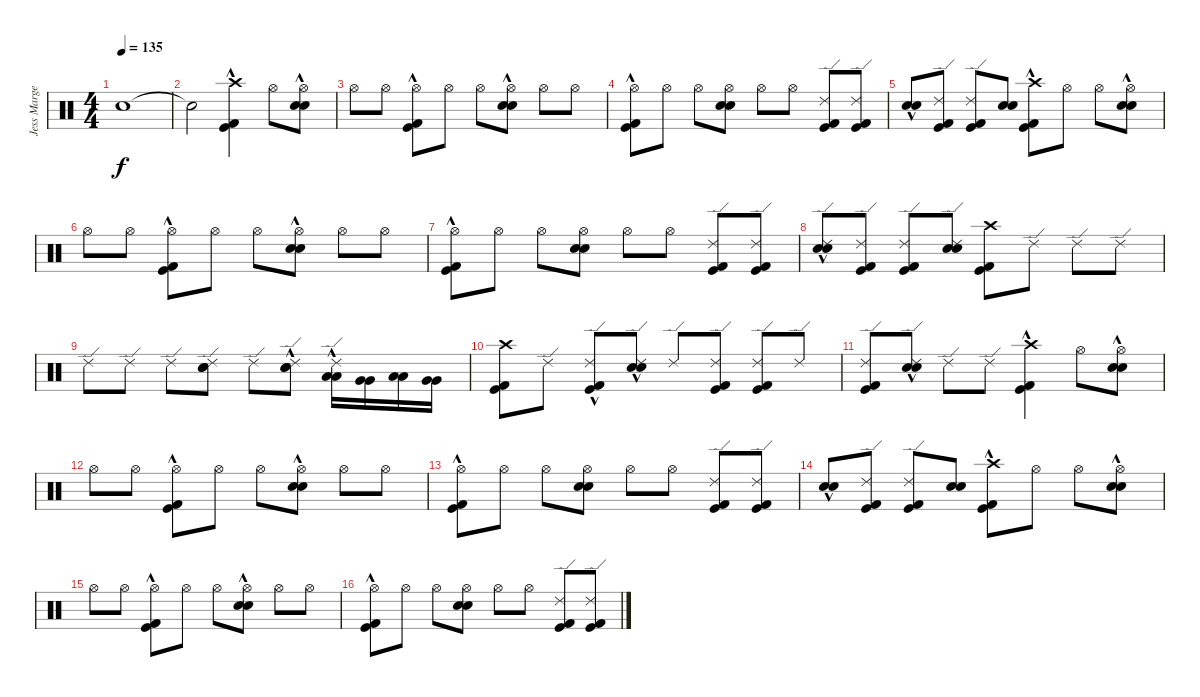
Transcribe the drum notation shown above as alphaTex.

\track ("Jess Margera" "Jess Marge") {instrument percussion}
\staff {score}
\articulation defaults
\ts (4 4)
\tempo 135
\clef neutral
\ks c "Snare (hit)".1{dy f}
|
"Snare (hit)"{t}.2 ("Kick (hit)"{hac} "Kick (hit) 2"{hac} "Crash high (hit)").4 "Hi-Hat (open)".8 ("Electric Snare (hit)"{hac} "Electric Snare (hit)"{hac} "Hi-Hat (open)").8 |
"Hi-Hat (open)".8 "Hi-Hat (open)".8 ("Kick (hit)"{hac} "Kick (hit) 2"{hac} "Hi-Hat (open)").8 "Hi-Hat (open)".8 "Hi-Hat (open)".8 ("Electric Snare (hit)"{hac} "Electric Snare (hit)"{hac} "Hi-Hat (open)").8 "Hi-Hat (open)".8 "Hi-Hat (open)".8 |
("Kick (hit)"{hac} "Kick (hit) 2"{hac} "Hi-Hat (open)").8 "Hi-Hat (open)".8 "Hi-Hat (open)".8 ("Electric Snare (hit)" "Electric Snare (hit)" "Hi-Hat (open)").8 "Hi-Hat (open)".8 "Hi-Hat (open)".8 ("Kick (hit)" "Kick (hit) 2" "Ride (edge) 2").8 ("Kick (hit)" "Kick (hit) 2" "Ride (edge) 2").8 |
("Electric Snare (hit)"{hac} "Electric Snare (hit)"{hac}).8 ("Kick (hit)" "Kick (hit) 2" "Ride (edge) 2").8 ("Kick (hit)" "Kick (hit) 2" "Ride (edge) 2").8 ("Electric Snare (hit)" "Electric Snare (hit)").8 ("Kick (hit)"{hac} "Kick (hit) 2"{hac} "Crash high (hit)").8 "Hi-Hat (open)".8 "Hi-Hat (open)".8 ("Electric Snare (hit)"{hac} "Electric Snare (hit)"{hac} "Hi-Hat (open)").8 |
"Hi-Hat (open)".8 "Hi-Hat (open)".8 ("Kick (hit)"{hac} "Kick (hit) 2"{hac} "Hi-Hat (open)").8 "Hi-Hat (open)".8 "Hi-Hat (open)".8 ("Electric Snare (hit)"{hac} "Electric Snare (hit)"{hac} "Hi-Hat (open)").8 "Hi-Hat (open)".8 "Hi-Hat (open)".8 |
("Kick (hit)"{hac} "Kick (hit) 2"{hac} "Hi-Hat (open)").8 "Hi-Hat (open)".8 "Hi-Hat (open)".8 ("Electric Snare (hit)" "Electric Snare (hit)" "Hi-Hat (open)").8 "Hi-Hat (open)".8 "Hi-Hat (open)".8 ("Kick (hit)" "Kick (hit) 2" "Ride (edge) 2").8 ("Kick (hit)" "Kick (hit) 2" "Ride (edge) 2").8 |
("Electric Snare (hit)"{hac} "Electric Snare (hit)"{hac} "Ride (edge) 2").8 ("Kick (hit)" "Kick (hit) 2" "Ride (edge) 2").8 ("Kick (hit)" "Kick (hit) 2" "Ride (edge) 2").8 ("Electric Snare (hit)" "Electric Snare (hit)" "Ride (edge) 2").8 ("Kick (hit)" "Kick (hit) 2" "Crash high (hit)").8 "Ride (edge) 2".8 "Ride (edge) 2".8 "Ride (edge) 2".8 |
"Ride (edge) 2".8 "Ride (edge) 2".8 "Ride (edge) 2".8 ("Electric Snare (hit)" "Electric Snare (hit)" "Ride (edge) 2").8 "Ride (edge) 2".8 ("Electric Snare (hit)"{hac} "Electric Snare (hit)"{hac} "Ride (edge) 2").8 ("Low Tom (hit)" "Low Tom (hit)" "Ride (edge) 2"{hac}).16 ("Very Low Tom (hit)" "Very Low Tom (hit)").16 ("Low Tom (hit)" "Low Tom (hit)").16 ("Very Low Tom (hit)" "Very Low Tom (hit)").16 |
("Kick (hit)" "Kick (hit) 2" "Crash high (hit)").8 "Ride (edge) 2".8 ("Kick (hit)"{hac} "Kick (hit) 2"{hac} "Ride (edge) 2").8 ("Electric Snare (hit)"{hac} "Electric Snare (hit)"{hac} "Ride (edge) 2").8 "Ride (edge) 2".8 ("Kick (hit)" "Kick (hit) 2" "Ride (edge) 2").8 ("Kick (hit)" "Kick (hit) 2" "Ride (edge) 2").8 "Ride (edge) 2".8 |
("Kick (hit)" "Kick (hit) 2" "Ride (edge) 2").8 ("Electric Snare (hit)"{hac} "Electric Snare (hit)"{hac} "Ride (edge) 2").8 "Ride (edge) 2".8 "Ride (edge) 2".8 ("Kick (hit)"{hac} "Kick (hit) 2"{hac} "Crash high (hit)").4 "Hi-Hat (open)".8 ("Electric Snare (hit)"{hac} "Electric Snare (hit)"{hac} "Hi-Hat (open)").8 |
"Hi-Hat (open)".8 "Hi-Hat (open)".8 ("Kick (hit)"{hac} "Kick (hit) 2"{hac} "Hi-Hat (open)").8 "Hi-Hat (open)".8 "Hi-Hat (open)".8 ("Electric Snare (hit)"{hac} "Electric Snare (hit)"{hac} "Hi-Hat (open)").8 "Hi-Hat (open)".8 "Hi-Hat (open)".8 |
("Kick (hit)"{hac} "Kick (hit) 2"{hac} "Hi-Hat (open)").8 "Hi-Hat (open)".8 "Hi-Hat (open)".8 ("Electric Snare (hit)" "Electric Snare (hit)" "Hi-Hat (open)").8 "Hi-Hat (open)".8 "Hi-Hat (open)".8 ("Kick (hit)" "Kick (hit) 2" "Ride (edge) 2").8 ("Kick (hit)" "Kick (hit) 2" "Ride (edge) 2").8 |
("Electric Snare (hit)"{hac} "Electric Snare (hit)"{hac}).8 ("Kick (hit)" "Kick (hit) 2" "Ride (edge) 2").8 ("Kick (hit)" "Kick (hit) 2" "Ride (edge) 2").8 ("Electric Snare (hit)" "Electric Snare (hit)").8 ("Kick (hit)"{hac} "Kick (hit) 2"{hac} "Crash high (hit)").8 "Hi-Hat (open)".8 "Hi-Hat (open)".8 ("Electric Snare (hit)"{hac} "Electric Snare (hit)"{hac} "Hi-Hat (open)").8 |
"Hi-Hat (open)".8 "Hi-Hat (open)".8 ("Kick (hit)"{hac} "Kick (hit) 2"{hac} "Hi-Hat (open)").8 "Hi-Hat (open)".8 "Hi-Hat (open)".8 ("Electric Snare (hit)"{hac} "Electric Snare (hit)"{hac} "Hi-Hat (open)").8 "Hi-Hat (open)".8 "Hi-Hat (open)".8 |
("Kick (hit)"{hac} "Kick (hit) 2"{hac} "Hi-Hat (open)").8 "Hi-Hat (open)".8 "Hi-Hat (open)".8 ("Electric Snare (hit)" "Electric Snare (hit)" "Hi-Hat (open)").8 "Hi-Hat (open)".8 "Hi-Hat (open)".8 ("Kick (hit)" "Kick (hit) 2" "Ride (edge) 2").8 ("Kick (hit)" "Kick (hit) 2" "Ride (edge) 2").8
